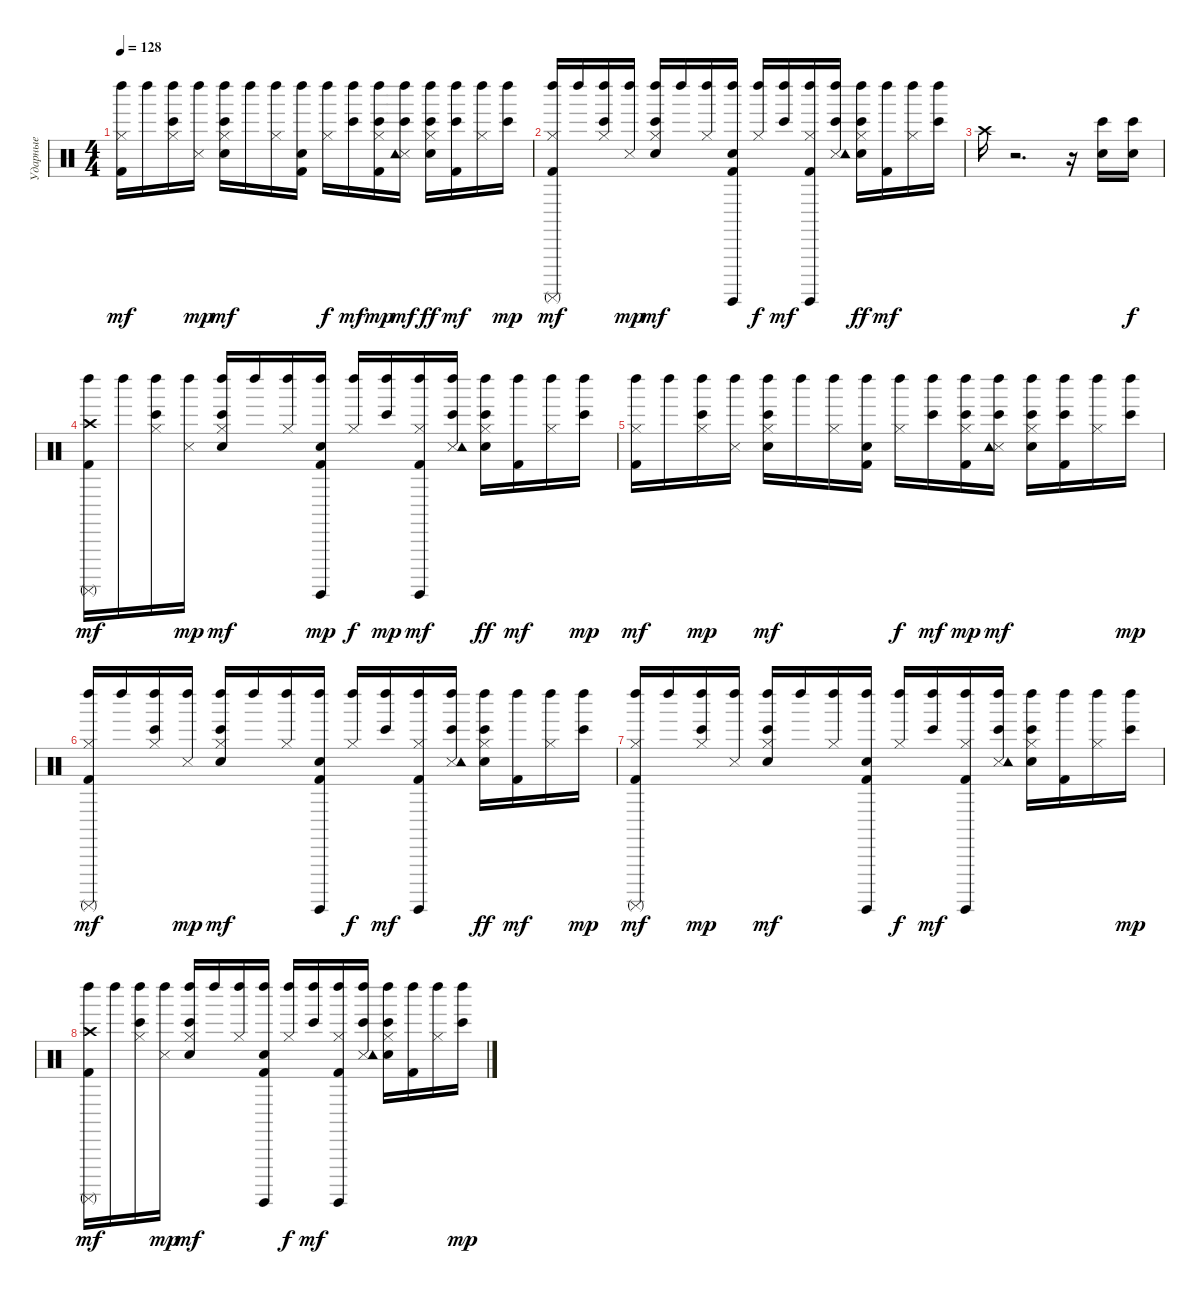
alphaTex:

\track ("Ударные" "Ударные") {instrument percussion}
\staff {score}
\articulation defaults
\ts (4 4)
\tempo 128
\clef neutral
\ks c
("Kick (hit) 2" "Hi-Hat (closed)" "Left Maraca (hit)").16{dy mf} "Left Maraca (hit)".16 ("Bongo High (hit)" "Hi-Hat (closed)" "Left Maraca (hit)").16 ("Snare (side stick) 3" "Left Maraca (hit)").16{dy mp} ("Bongo High (hit)" "Electric Snare (hit)" "Hi-Hat (closed)" "Left Maraca (hit)").16{dy mf} "Left Maraca (hit)".16 ("Hi-Hat (closed)" "Left Maraca (hit)").16 ("Kick (hit) 2" "Electric Snare (hit)" "Left Maraca (hit)").16 ("Hi-Hat (closed)" "Left Maraca (hit)").16{dy f} ("Bongo High (hit)" "Left Maraca (hit)").16{dy mf} ("Bongo High (hit)" "Kick (hit) 2" "Hi-Hat (closed)" "Left Maraca (hit)").16{dy mp} ("Bongo High (hit)" "Snare (side stick) 3" "Tambourine (hit)" "Left Maraca (hit)").16{dy mf} ("Bongo High (hit)" "Electric Snare (hit)" "Hi-Hat (closed)" "Left Maraca (hit)").16{dy ff} ("Bongo High (hit)" "Kick (hit) 2" "Left Maraca (hit)").16{dy mf} ("Hi-Hat (closed)" "Left Maraca (hit)").16 ("Bongo High (hit)" "Left Maraca (hit)").16{dy mp} |
("Kick (hit) 2" "Hi-Hat (closed)" "Left Maraca (hit)" "Surdo (mute)").16{dy mf} "Left Maraca (hit)".16 ("Bongo High (hit)" "Hi-Hat (closed)" "Left Maraca (hit)").16 ("Snare (side stick) 3" "Left Maraca (hit)").16{dy mp} ("Bongo High (hit)" "Electric Snare (hit)" "Hi-Hat (closed)" "Left Maraca (hit)").16{dy mf} "Left Maraca (hit)".16 ("Hi-Hat (closed)" "Left Maraca (hit)").16 ("Kick (hit) 2" "Electric Snare (hit)" "Left Maraca (hit)" "Surdo (hit)").16 ("Hi-Hat (closed)" "Left Maraca (hit)").16{dy f} ("Bongo High (hit)" "Left Maraca (hit)").16{dy mf} ("Kick (hit) 2" "Hi-Hat (closed)" "Left Maraca (hit)" "Surdo (hit)").16 ("Bongo High (hit)" "Snare (side stick) 3" "Tambourine (hit)" "Left Maraca (hit)").16 ("Bongo High (hit)" "Electric Snare (hit)" "Hi-Hat (closed)" "Left Maraca (hit)").16{dy ff} ("Kick (hit) 2" "Left Maraca (hit)").16{dy mf} ("Hi-Hat (closed)" "Left Maraca (hit)").16 ("Bongo High (hit)" "Left Maraca (hit)").16 |
"Crash high (hit)".16 r.2{d} r.16 ("Bongo High (hit)" "Electric Snare (hit)").16 ("Bongo High (hit)" "Electric Snare (hit)").16{dy f} |
("Kick (hit) 2" "Crash high (hit)" "Left Maraca (hit)" "Surdo (mute)").16{dy mf} "Left Maraca (hit)".16 ("Bongo High (hit)" "Hi-Hat (closed)" "Left Maraca (hit)").16 ("Snare (side stick) 3" "Left Maraca (hit)").16{dy mp} ("Bongo High (hit)" "Electric Snare (hit)" "Hi-Hat (closed)" "Left Maraca (hit)").16{dy mf} "Left Maraca (hit)".16 ("Hi-Hat (closed)" "Left Maraca (hit)").16 ("Kick (hit) 2" "Electric Snare (hit)" "Left Maraca (hit)" "Surdo (hit)").16{dy mp} ("Hi-Hat (closed)" "Left Maraca (hit)").16{dy f} ("Bongo High (hit)" "Left Maraca (hit)").16{dy mp} ("Kick (hit) 2" "Hi-Hat (closed)" "Left Maraca (hit)" "Surdo (hit)").16{dy mf} ("Bongo High (hit)" "Snare (side stick) 3" "Tambourine (hit)" "Left Maraca (hit)").16 ("Bongo High (hit)" "Electric Snare (hit)" "Hi-Hat (closed)" "Left Maraca (hit)").16{dy ff} ("Kick (hit) 2" "Left Maraca (hit)").16{dy mf} ("Hi-Hat (closed)" "Left Maraca (hit)").16 ("Bongo High (hit)" "Left Maraca (hit)").16{dy mp} |
("Kick (hit) 2" "Hi-Hat (closed)" "Left Maraca (hit)").16{dy mf} "Left Maraca (hit)".16 ("Bongo High (hit)" "Hi-Hat (closed)" "Left Maraca (hit)").16{dy mp} ("Snare (side stick) 3" "Left Maraca (hit)").16 ("Bongo High (hit)" "Electric Snare (hit)" "Hi-Hat (closed)" "Left Maraca (hit)").16{dy mf} "Left Maraca (hit)".16 ("Hi-Hat (closed)" "Left Maraca (hit)").16 ("Kick (hit) 2" "Electric Snare (hit)" "Left Maraca (hit)").16 ("Hi-Hat (closed)" "Left Maraca (hit)").16{dy f} ("Bongo High (hit)" "Left Maraca (hit)").16{dy mf} ("Bongo High (hit)" "Kick (hit) 2" "Hi-Hat (closed)" "Left Maraca (hit)").16{dy mp} ("Bongo High (hit)" "Snare (side stick) 3" "Tambourine (hit)" "Left Maraca (hit)").16{dy mf} ("Bongo High (hit)" "Electric Snare (hit)" "Hi-Hat (closed)" "Left Maraca (hit)").16 ("Bongo High (hit)" "Kick (hit) 2" "Left Maraca (hit)").16 ("Hi-Hat (closed)" "Left Maraca (hit)").16 ("Bongo High (hit)" "Left Maraca (hit)").16{dy mp} |
("Kick (hit) 2" "Hi-Hat (closed)" "Left Maraca (hit)" "Surdo (mute)").16{dy mf} "Left Maraca (hit)".16 ("Bongo High (hit)" "Hi-Hat (closed)" "Left Maraca (hit)").16 ("Snare (side stick) 3" "Left Maraca (hit)").16{dy mp} ("Bongo High (hit)" "Electric Snare (hit)" "Hi-Hat (closed)" "Left Maraca (hit)").16{dy mf} "Left Maraca (hit)".16 ("Hi-Hat (closed)" "Left Maraca (hit)").16 ("Kick (hit) 2" "Electric Snare (hit)" "Left Maraca (hit)" "Surdo (hit)").16 ("Hi-Hat (closed)" "Left Maraca (hit)").16{dy f} ("Bongo High (hit)" "Left Maraca (hit)").16{dy mf} ("Kick (hit) 2" "Hi-Hat (closed)" "Left Maraca (hit)" "Surdo (hit)").16 ("Bongo High (hit)" "Snare (side stick) 3" "Tambourine (hit)" "Left Maraca (hit)").16 ("Bongo High (hit)" "Electric Snare (hit)" "Hi-Hat (closed)" "Left Maraca (hit)").16{dy ff} ("Kick (hit) 2" "Left Maraca (hit)").16{dy mf} ("Hi-Hat (closed)" "Left Maraca (hit)").16 ("Bongo High (hit)" "Left Maraca (hit)").16{dy mp} |
("Kick (hit) 2" "Hi-Hat (closed)" "Left Maraca (hit)" "Surdo (mute)").16{dy mf} "Left Maraca (hit)".16 ("Bongo High (hit)" "Hi-Hat (closed)" "Left Maraca (hit)").16{dy mp} ("Snare (side stick) 3" "Left Maraca (hit)").16 ("Bongo High (hit)" "Electric Snare (hit)" "Hi-Hat (closed)" "Left Maraca (hit)").16{dy mf} "Left Maraca (hit)".16 ("Hi-Hat (closed)" "Left Maraca (hit)").16 ("Kick (hit) 2" "Electric Snare (hit)" "Left Maraca (hit)" "Surdo (hit)").16 ("Hi-Hat (closed)" "Left Maraca (hit)").16{dy f} ("Bongo High (hit)" "Left Maraca (hit)").16{dy mf} ("Kick (hit) 2" "Hi-Hat (closed)" "Left Maraca (hit)" "Surdo (hit)").16 ("Bongo High (hit)" "Snare (side stick) 3" "Tambourine (hit)" "Left Maraca (hit)").16 ("Bongo High (hit)" "Electric Snare (hit)" "Hi-Hat (closed)" "Left Maraca (hit)").16 ("Kick (hit) 2" "Left Maraca (hit)").16 ("Hi-Hat (closed)" "Left Maraca (hit)").16 ("Bongo High (hit)" "Left Maraca (hit)").16{dy mp} |
("Kick (hit) 2" "Crash high (hit)" "Left Maraca (hit)" "Surdo (mute)").16{dy mf} "Left Maraca (hit)".16 ("Bongo High (hit)" "Hi-Hat (closed)" "Left Maraca (hit)").16 ("Snare (side stick) 3" "Left Maraca (hit)").16{dy mp} ("Bongo High (hit)" "Electric Snare (hit)" "Hi-Hat (closed)" "Left Maraca (hit)").16{dy mf} "Left Maraca (hit)".16 ("Hi-Hat (closed)" "Left Maraca (hit)").16 ("Kick (hit) 2" "Electric Snare (hit)" "Left Maraca (hit)" "Surdo (hit)").16 ("Hi-Hat (closed)" "Left Maraca (hit)").16{dy f} ("Bongo High (hit)" "Left Maraca (hit)").16{dy mf} ("Kick (hit) 2" "Hi-Hat (closed)" "Left Maraca (hit)" "Surdo (hit)").16 ("Bongo High (hit)" "Snare (side stick) 3" "Tambourine (hit)" "Left Maraca (hit)").16 ("Bongo High (hit)" "Electric Snare (hit)" "Hi-Hat (closed)" "Left Maraca (hit)").16 ("Kick (hit) 2" "Left Maraca (hit)").16 ("Hi-Hat (closed)" "Left Maraca (hit)").16 ("Bongo High (hit)" "Left Maraca (hit)").16{dy mp}
